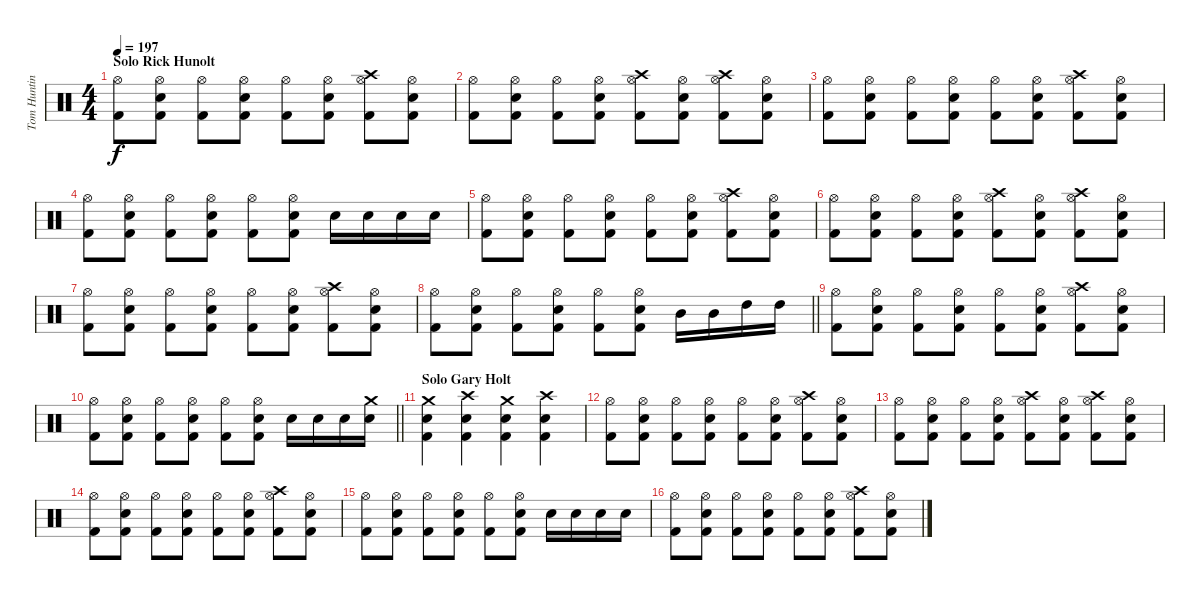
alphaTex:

\track ("Tom Hunting" "Tom Huntin") {instrument percussion}
\staff {score}
\articulation defaults
\ts (4 4)
\section ("" "Solo Rick Hunolt")
\tempo 197
\clef neutral
\ks c
("Hi-Hat (open)" "Kick (hit) 2").8{dy f} ("Hi-Hat (open)" "Snare (hit) 2" "Kick (hit) 2").8 ("Hi-Hat (open)" "Kick (hit) 2").8 ("Hi-Hat (open)" "Snare (hit) 2" "Kick (hit) 2").8 ("Hi-Hat (open)" "Kick (hit) 2").8 ("Hi-Hat (open)" "Snare (hit) 2" "Kick (hit) 2").8 ("Crash high (hit)" "Hi-Hat (open)" "Kick (hit) 2").8 ("Hi-Hat (open)" "Snare (hit) 2" "Kick (hit) 2").8 |
("Hi-Hat (open)" "Kick (hit) 2").8 ("Hi-Hat (open)" "Snare (hit) 2" "Kick (hit) 2").8 ("Hi-Hat (open)" "Kick (hit) 2").8 ("Hi-Hat (open)" "Snare (hit) 2" "Kick (hit) 2").8 ("Crash high (hit)" "Hi-Hat (open)" "Kick (hit) 2").8 ("Hi-Hat (open)" "Snare (hit) 2" "Kick (hit) 2").8 ("Crash high (hit)" "Hi-Hat (open)" "Kick (hit) 2").8 ("Hi-Hat (open)" "Snare (hit) 2" "Kick (hit) 2").8 |
("Hi-Hat (open)" "Kick (hit) 2").8 ("Hi-Hat (open)" "Snare (hit) 2" "Kick (hit) 2").8 ("Hi-Hat (open)" "Kick (hit) 2").8 ("Hi-Hat (open)" "Snare (hit) 2" "Kick (hit) 2").8 ("Hi-Hat (open)" "Kick (hit) 2").8 ("Hi-Hat (open)" "Snare (hit) 2" "Kick (hit) 2").8 ("Crash high (hit)" "Hi-Hat (open)" "Kick (hit) 2").8 ("Hi-Hat (open)" "Snare (hit) 2" "Kick (hit) 2").8 |
("Hi-Hat (open)" "Kick (hit) 2").8 ("Hi-Hat (open)" "Snare (hit) 2" "Kick (hit) 2").8 ("Hi-Hat (open)" "Kick (hit) 2").8 ("Hi-Hat (open)" "Snare (hit) 2" "Kick (hit) 2").8 ("Hi-Hat (open)" "Kick (hit) 2").8 ("Hi-Hat (open)" "Snare (hit) 2" "Kick (hit) 2").8 "Snare (hit) 2".16 "Snare (hit) 2".16 "Snare (hit) 2".16 "Snare (hit) 2".16 |
("Hi-Hat (open)" "Kick (hit) 2").8 ("Hi-Hat (open)" "Snare (hit) 2" "Kick (hit) 2").8 ("Hi-Hat (open)" "Kick (hit) 2").8 ("Hi-Hat (open)" "Snare (hit) 2" "Kick (hit) 2").8 ("Hi-Hat (open)" "Kick (hit) 2").8 ("Hi-Hat (open)" "Snare (hit) 2" "Kick (hit) 2").8 ("Crash high (hit)" "Hi-Hat (open)" "Kick (hit) 2").8 ("Hi-Hat (open)" "Snare (hit) 2" "Kick (hit) 2").8 |
("Hi-Hat (open)" "Kick (hit) 2").8 ("Hi-Hat (open)" "Snare (hit) 2" "Kick (hit) 2").8 ("Hi-Hat (open)" "Kick (hit) 2").8 ("Hi-Hat (open)" "Snare (hit) 2" "Kick (hit) 2").8 ("Crash high (hit)" "Hi-Hat (open)" "Kick (hit) 2").8 ("Hi-Hat (open)" "Snare (hit) 2" "Kick (hit) 2").8 ("Crash high (hit)" "Hi-Hat (open)" "Kick (hit) 2").8 ("Hi-Hat (open)" "Snare (hit) 2" "Kick (hit) 2").8 |
("Hi-Hat (open)" "Kick (hit) 2").8 ("Hi-Hat (open)" "Snare (hit) 2" "Kick (hit) 2").8 ("Hi-Hat (open)" "Kick (hit) 2").8 ("Hi-Hat (open)" "Snare (hit) 2" "Kick (hit) 2").8 ("Hi-Hat (open)" "Kick (hit) 2").8 ("Hi-Hat (open)" "Snare (hit) 2" "Kick (hit) 2").8 ("Crash high (hit)" "Hi-Hat (open)" "Kick (hit) 2").8 ("Hi-Hat (open)" "Snare (hit) 2" "Kick (hit) 2").8 |
\barLineRight lightlight
("Hi-Hat (open)" "Kick (hit) 2").8 ("Hi-Hat (open)" "Snare (hit) 2" "Kick (hit) 2").8 ("Hi-Hat (open)" "Kick (hit) 2").8 ("Hi-Hat (open)" "Snare (hit) 2" "Kick (hit) 2").8 ("Hi-Hat (open)" "Kick (hit) 2").8 ("Hi-Hat (open)" "Snare (hit) 2" "Kick (hit) 2").8 "Mid Tom (hit)".16 "Mid Tom (hit)".16 "High Tom (hit)".16 "High Tom (hit)".16 |
("Hi-Hat (open)" "Kick (hit) 2").8 ("Hi-Hat (open)" "Snare (hit) 2" "Kick (hit) 2").8 ("Hi-Hat (open)" "Kick (hit) 2").8 ("Hi-Hat (open)" "Snare (hit) 2" "Kick (hit) 2").8 ("Hi-Hat (open)" "Kick (hit) 2").8 ("Hi-Hat (open)" "Snare (hit) 2" "Kick (hit) 2").8 ("Crash high (hit)" "Hi-Hat (open)" "Kick (hit) 2").8 ("Hi-Hat (open)" "Snare (hit) 2" "Kick (hit) 2").8 |
\barLineRight lightlight
("Hi-Hat (open)" "Kick (hit) 2").8 ("Hi-Hat (open)" "Snare (hit) 2" "Kick (hit) 2").8 ("Hi-Hat (open)" "Kick (hit) 2").8 ("Hi-Hat (open)" "Snare (hit) 2" "Kick (hit) 2").8 ("Hi-Hat (open)" "Kick (hit) 2").8 ("Hi-Hat (open)" "Snare (hit) 2" "Kick (hit) 2").8 "Snare (hit) 2".16 "Snare (hit) 2".16 "Snare (hit) 2".16 ("Crash medium (hit)" "Snare (hit) 2").16 |
\section ("" "Solo Gary Holt")
("Crash medium (hit)" "Snare (hit) 2" "Kick (hit) 2").4 ("Crash high (hit)" "Snare (hit) 2" "Kick (hit) 2").4 ("Crash medium (hit)" "Snare (hit) 2" "Kick (hit) 2").4 ("Crash high (hit)" "Snare (hit) 2" "Kick (hit) 2").4 |
("Hi-Hat (open)" "Kick (hit) 2").8 ("Hi-Hat (open)" "Snare (hit) 2" "Kick (hit) 2").8 ("Hi-Hat (open)" "Kick (hit) 2").8 ("Hi-Hat (open)" "Snare (hit) 2" "Kick (hit) 2").8 ("Hi-Hat (open)" "Kick (hit) 2").8 ("Hi-Hat (open)" "Snare (hit) 2" "Kick (hit) 2").8 ("Crash high (hit)" "Hi-Hat (open)" "Kick (hit) 2").8 ("Hi-Hat (open)" "Snare (hit) 2" "Kick (hit) 2").8 |
("Hi-Hat (open)" "Kick (hit) 2").8 ("Hi-Hat (open)" "Snare (hit) 2" "Kick (hit) 2").8 ("Hi-Hat (open)" "Kick (hit) 2").8 ("Hi-Hat (open)" "Snare (hit) 2" "Kick (hit) 2").8 ("Crash high (hit)" "Hi-Hat (open)" "Kick (hit) 2").8 ("Hi-Hat (open)" "Snare (hit) 2" "Kick (hit) 2").8 ("Crash high (hit)" "Hi-Hat (open)" "Kick (hit) 2").8 ("Hi-Hat (open)" "Snare (hit) 2" "Kick (hit) 2").8 |
("Hi-Hat (open)" "Kick (hit) 2").8 ("Hi-Hat (open)" "Snare (hit) 2" "Kick (hit) 2").8 ("Hi-Hat (open)" "Kick (hit) 2").8 ("Hi-Hat (open)" "Snare (hit) 2" "Kick (hit) 2").8 ("Hi-Hat (open)" "Kick (hit) 2").8 ("Hi-Hat (open)" "Snare (hit) 2" "Kick (hit) 2").8 ("Crash high (hit)" "Hi-Hat (open)" "Kick (hit) 2").8 ("Hi-Hat (open)" "Snare (hit) 2" "Kick (hit) 2").8 |
("Hi-Hat (open)" "Kick (hit) 2").8 ("Hi-Hat (open)" "Snare (hit) 2" "Kick (hit) 2").8 ("Hi-Hat (open)" "Kick (hit) 2").8 ("Hi-Hat (open)" "Snare (hit) 2" "Kick (hit) 2").8 ("Hi-Hat (open)" "Kick (hit) 2").8 ("Hi-Hat (open)" "Snare (hit) 2" "Kick (hit) 2").8 "Snare (hit) 2".16 "Snare (hit) 2".16 "Snare (hit) 2".16 "Snare (hit) 2".16 |
("Hi-Hat (open)" "Kick (hit) 2").8 ("Hi-Hat (open)" "Snare (hit) 2" "Kick (hit) 2").8 ("Hi-Hat (open)" "Kick (hit) 2").8 ("Hi-Hat (open)" "Snare (hit) 2" "Kick (hit) 2").8 ("Hi-Hat (open)" "Kick (hit) 2").8 ("Hi-Hat (open)" "Snare (hit) 2" "Kick (hit) 2").8 ("Crash high (hit)" "Hi-Hat (open)" "Kick (hit) 2").8 ("Hi-Hat (open)" "Snare (hit) 2" "Kick (hit) 2").8
